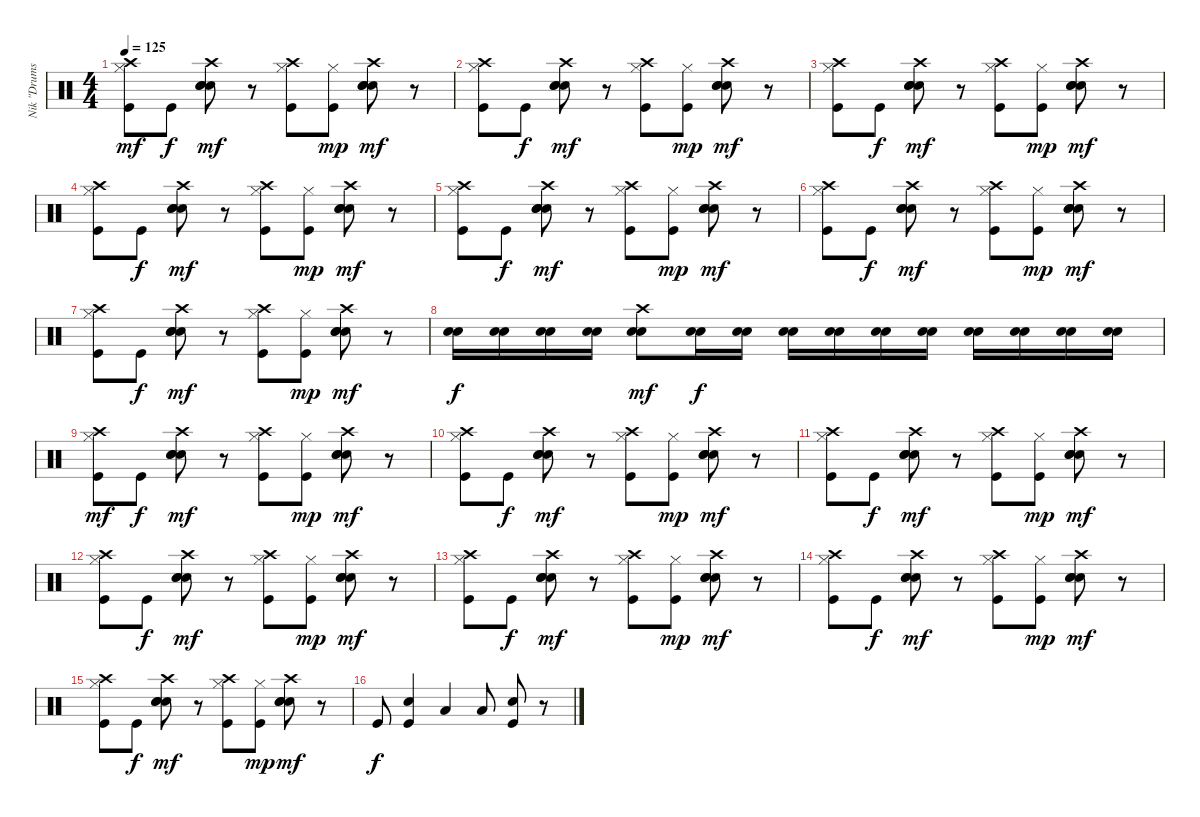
\track ("Nik \"Drums\"" "Nik \"Drums") {instrument percussion}
\staff {score}
\articulation defaults
\ts (4 4)
\tempo 125
\clef neutral
\ks c
("Hi-Hat (closed)" "Crash high (hit)" "Kick (hit)").8{dy mf} "Kick (hit)".8{dy f} ("Electric Snare (hit)" "Crash high (hit)" "Electric Snare (hit)" "Snare (hit) 2").8{dy mf} r.8 ("Hi-Hat (closed)" "Crash high (hit)" "Kick (hit)").8 ("Hi-Hat (closed)" "Kick (hit)").8{dy mp} ("Electric Snare (hit)" "Crash high (hit)" "Electric Snare (hit)" "Snare (hit) 2").8{dy mf} r.8 |
("Hi-Hat (closed)" "Crash high (hit)" "Kick (hit)").8 "Kick (hit)".8{dy f} ("Electric Snare (hit)" "Crash high (hit)" "Electric Snare (hit)" "Snare (hit) 2").8{dy mf} r.8 ("Hi-Hat (closed)" "Crash high (hit)" "Kick (hit)").8 ("Hi-Hat (closed)" "Kick (hit)").8{dy mp} ("Electric Snare (hit)" "Crash high (hit)" "Electric Snare (hit)" "Snare (hit) 2").8{dy mf} r.8 |
("Hi-Hat (closed)" "Crash high (hit)" "Kick (hit)").8 "Kick (hit)".8{dy f} ("Electric Snare (hit)" "Crash high (hit)" "Electric Snare (hit)" "Snare (hit) 2").8{dy mf} r.8 ("Hi-Hat (closed)" "Crash high (hit)" "Kick (hit)").8 ("Hi-Hat (closed)" "Kick (hit)").8{dy mp} ("Electric Snare (hit)" "Crash high (hit)" "Electric Snare (hit)" "Snare (hit) 2").8{dy mf} r.8 |
("Hi-Hat (closed)" "Crash high (hit)" "Kick (hit)").8 "Kick (hit)".8{dy f} ("Electric Snare (hit)" "Crash high (hit)" "Electric Snare (hit)" "Snare (hit) 2").8{dy mf} r.8 ("Hi-Hat (closed)" "Crash high (hit)" "Kick (hit)").8 ("Hi-Hat (closed)" "Kick (hit)").8{dy mp} ("Electric Snare (hit)" "Crash high (hit)" "Electric Snare (hit)" "Snare (hit) 2").8{dy mf} r.8 |
("Hi-Hat (closed)" "Crash high (hit)" "Kick (hit)").8 "Kick (hit)".8{dy f} ("Electric Snare (hit)" "Crash high (hit)" "Electric Snare (hit)" "Snare (hit) 2").8{dy mf} r.8 ("Hi-Hat (closed)" "Crash high (hit)" "Kick (hit)").8 ("Hi-Hat (closed)" "Kick (hit)").8{dy mp} ("Electric Snare (hit)" "Crash high (hit)" "Electric Snare (hit)" "Snare (hit) 2").8{dy mf} r.8 |
("Hi-Hat (closed)" "Crash high (hit)" "Kick (hit)").8 "Kick (hit)".8{dy f} ("Electric Snare (hit)" "Crash high (hit)" "Electric Snare (hit)" "Snare (hit) 2").8{dy mf} r.8 ("Hi-Hat (closed)" "Crash high (hit)" "Kick (hit)").8 ("Hi-Hat (closed)" "Kick (hit)").8{dy mp} ("Electric Snare (hit)" "Crash high (hit)" "Electric Snare (hit)" "Snare (hit) 2").8{dy mf} r.8 |
("Hi-Hat (closed)" "Crash high (hit)" "Kick (hit)").8 "Kick (hit)".8{dy f} ("Electric Snare (hit)" "Crash high (hit)" "Electric Snare (hit)" "Snare (hit) 2").8{dy mf} r.8 ("Hi-Hat (closed)" "Crash high (hit)" "Kick (hit)").8 ("Hi-Hat (closed)" "Kick (hit)").8{dy mp} ("Electric Snare (hit)" "Crash high (hit)" "Electric Snare (hit)" "Snare (hit) 2").8{dy mf} r.8 |
("Electric Snare (hit)" "Snare (hit) 2").16{dy f} ("Electric Snare (hit)" "Snare (hit) 2").16 ("Electric Snare (hit)" "Snare (hit) 2").16 ("Electric Snare (hit)" "Snare (hit) 2").16 ("Electric Snare (hit)" "Snare (hit) 2" "Crash high (hit)").8{dy mf} ("Electric Snare (hit)" "Snare (hit) 2").16{dy f} ("Electric Snare (hit)" "Snare (hit) 2").16 ("Electric Snare (hit)" "Snare (hit) 2").16 ("Electric Snare (hit)" "Snare (hit) 2").16 ("Electric Snare (hit)" "Snare (hit) 2").16 ("Electric Snare (hit)" "Snare (hit) 2").16 ("Electric Snare (hit)" "Snare (hit) 2").16 ("Electric Snare (hit)" "Snare (hit) 2").16 ("Electric Snare (hit)" "Snare (hit) 2").16 ("Electric Snare (hit)" "Snare (hit) 2").16 |
("Hi-Hat (closed)" "Crash high (hit)" "Kick (hit)").8{dy mf} "Kick (hit)".8{dy f} ("Electric Snare (hit)" "Crash high (hit)" "Electric Snare (hit)" "Snare (hit) 2").8{dy mf} r.8 ("Hi-Hat (closed)" "Crash high (hit)" "Kick (hit)").8 ("Hi-Hat (closed)" "Kick (hit)").8{dy mp} ("Electric Snare (hit)" "Crash high (hit)" "Electric Snare (hit)" "Snare (hit) 2").8{dy mf} r.8 |
("Hi-Hat (closed)" "Crash high (hit)" "Kick (hit)").8 "Kick (hit)".8{dy f} ("Electric Snare (hit)" "Crash high (hit)" "Electric Snare (hit)" "Snare (hit) 2").8{dy mf} r.8 ("Hi-Hat (closed)" "Crash high (hit)" "Kick (hit)").8 ("Hi-Hat (closed)" "Kick (hit)").8{dy mp} ("Electric Snare (hit)" "Crash high (hit)" "Electric Snare (hit)" "Snare (hit) 2").8{dy mf} r.8 |
("Hi-Hat (closed)" "Crash high (hit)" "Kick (hit)").8 "Kick (hit)".8{dy f} ("Electric Snare (hit)" "Crash high (hit)" "Electric Snare (hit)" "Snare (hit) 2").8{dy mf} r.8 ("Hi-Hat (closed)" "Crash high (hit)" "Kick (hit)").8 ("Hi-Hat (closed)" "Kick (hit)").8{dy mp} ("Electric Snare (hit)" "Crash high (hit)" "Electric Snare (hit)" "Snare (hit) 2").8{dy mf} r.8 |
("Hi-Hat (closed)" "Crash high (hit)" "Kick (hit)").8 "Kick (hit)".8{dy f} ("Electric Snare (hit)" "Crash high (hit)" "Electric Snare (hit)" "Snare (hit) 2").8{dy mf} r.8 ("Hi-Hat (closed)" "Crash high (hit)" "Kick (hit)").8 ("Hi-Hat (closed)" "Kick (hit)").8{dy mp} ("Electric Snare (hit)" "Crash high (hit)" "Electric Snare (hit)" "Snare (hit) 2").8{dy mf} r.8 |
("Hi-Hat (closed)" "Crash high (hit)" "Kick (hit)").8 "Kick (hit)".8{dy f} ("Electric Snare (hit)" "Crash high (hit)" "Electric Snare (hit)" "Snare (hit) 2").8{dy mf} r.8 ("Hi-Hat (closed)" "Crash high (hit)" "Kick (hit)").8 ("Hi-Hat (closed)" "Kick (hit)").8{dy mp} ("Electric Snare (hit)" "Crash high (hit)" "Electric Snare (hit)" "Snare (hit) 2").8{dy mf} r.8 |
("Hi-Hat (closed)" "Crash high (hit)" "Kick (hit)").8 "Kick (hit)".8{dy f} ("Electric Snare (hit)" "Crash high (hit)" "Electric Snare (hit)" "Snare (hit) 2").8{dy mf} r.8 ("Hi-Hat (closed)" "Crash high (hit)" "Kick (hit)").8 ("Hi-Hat (closed)" "Kick (hit)").8{dy mp} ("Electric Snare (hit)" "Crash high (hit)" "Electric Snare (hit)" "Snare (hit) 2").8{dy mf} r.8 |
("Hi-Hat (closed)" "Crash high (hit)" "Kick (hit)").8 "Kick (hit)".8{dy f} ("Electric Snare (hit)" "Crash high (hit)" "Electric Snare (hit)" "Snare (hit) 2").8{dy mf} r.8 ("Hi-Hat (closed)" "Crash high (hit)" "Kick (hit)").8 ("Hi-Hat (closed)" "Kick (hit)").8{dy mp} ("Electric Snare (hit)" "Crash high (hit)" "Electric Snare (hit)" "Snare (hit) 2").8{dy mf} r.8 |
"Kick (hit)".8{dy f} ("Snare (hit) 2" "Kick (hit)").4 "Low Floor Tom (hit)".4 "Low Floor Tom (hit)".8 ("Kick (hit)" "Snare (hit) 2").8 r.8
